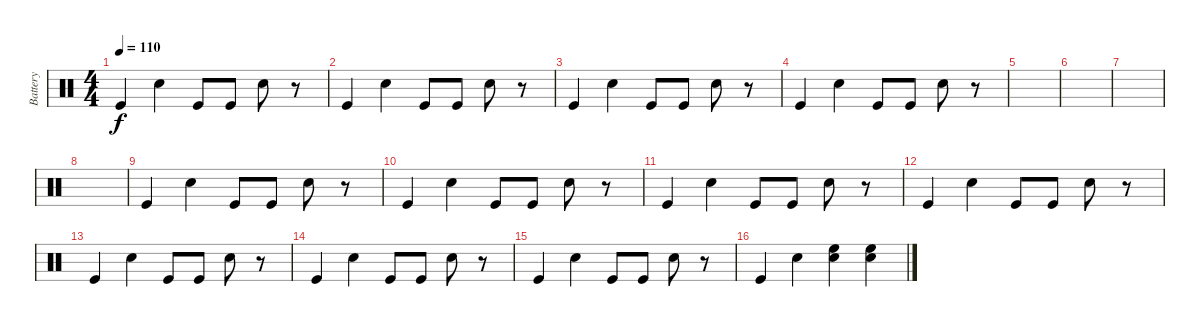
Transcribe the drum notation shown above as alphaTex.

\track ("Battery" "Battery") {instrument percussion}
\staff {score}
\articulation defaults
\ts (4 4)
\tempo 110
\clef neutral
\ks c "Kick (hit)".4{dy f} "Snare (hit) 2".4 "Kick (hit)".8 "Kick (hit)".8 "Snare (hit) 2".8
r.8 |
"Kick (hit)".4 "Snare (hit) 2".4 "Kick (hit)".8 "Kick (hit)".8 "Snare (hit) 2".8 r.8 |
"Kick (hit)".4 "Snare (hit) 2".4 "Kick (hit)".8 "Kick (hit)".8 "Snare (hit) 2".8 r.8 |
"Kick (hit)".4 "Snare (hit) 2".4 "Kick (hit)".8 "Kick (hit)".8 "Snare (hit) 2".8 r.8 |
|
|
|
|
"Kick (hit)".4 "Snare (hit) 2".4 "Kick (hit)".8 "Kick (hit)".8 "Snare (hit) 2".8 r.8 |
"Kick (hit)".4 "Snare (hit) 2".4 "Kick (hit)".8 "Kick (hit)".8 "Snare (hit) 2".8 r.8 |
"Kick (hit)".4 "Snare (hit) 2".4 "Kick (hit)".8 "Kick (hit)".8 "Snare (hit) 2".8 r.8 |
"Kick (hit)".4 "Snare (hit) 2".4 "Kick (hit)".8 "Kick (hit)".8 "Snare (hit) 2".8 r.8 |
"Kick (hit)".4 "Snare (hit) 2".4 "Kick (hit)".8 "Kick (hit)".8 "Snare (hit) 2".8 r.8 |
"Kick (hit)".4 "Snare (hit) 2".4 "Kick (hit)".8 "Kick (hit)".8 "Snare (hit) 2".8 r.8 |
"Kick (hit)".4 "Snare (hit) 2".4 "Kick (hit)".8 "Kick (hit)".8 "Snare (hit) 2".8 r.8 |
"Kick (hit)".4 "Snare (hit) 2".4 ("High Floor Tom (hit)" "Snare (hit) 2").4 ("High Floor Tom (hit)" "Snare (hit) 2").4
